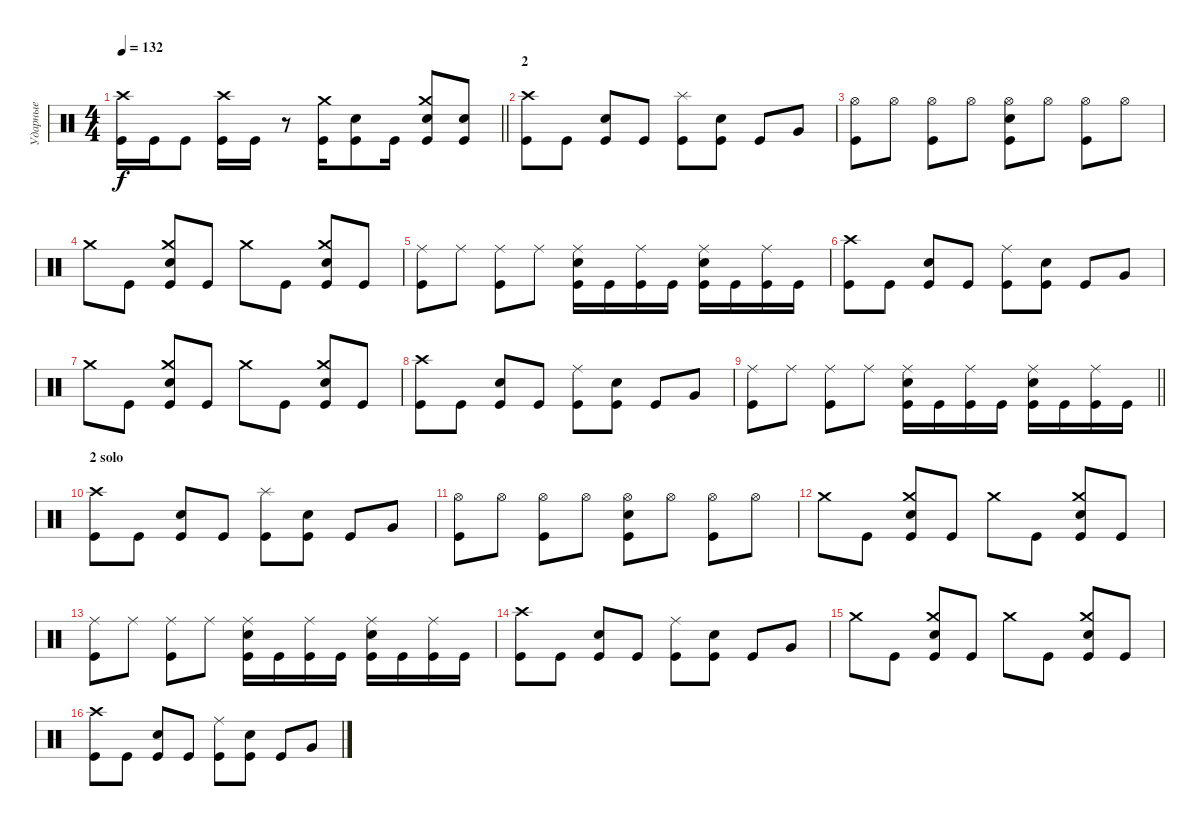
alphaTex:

\track ("Ударные" "Ударные") {instrument percussion}
\staff {score}
\articulation defaults
\ts (4 4)
\tempo 132
\clef neutral
\barLineRight lightlight
\ks c
("Crash high (hit)" "Kick (hit)").16{dy f} "Kick (hit)".16 "Kick (hit)".8 ("Crash high (hit)" "Kick (hit)").16 "Kick (hit)".16 r.8 ("Crash medium (hit)" "Kick (hit)").16 ("Electric Snare (hit)" "Kick (hit)").8 "Kick (hit)".16 ("Crash medium (hit)" "Electric Snare (hit)" "Kick (hit)").8 ("Electric Snare (hit)" "Kick (hit)").8 |
\section ("" "2")
("Crash high (hit)" "Kick (hit)").8 "Kick (hit)".8 ("Electric Snare (hit)" "Kick (hit)").8 "Kick (hit)".8 ("Splash (hit)" "Kick (hit)").8 ("Electric Snare (hit)" "Kick (hit)").8 "Kick (hit)".8 "Very Low Tom (hit)".8 |
("Hi-Hat (open)" "Kick (hit)").8 "Hi-Hat (open)".8 ("Hi-Hat (open)" "Kick (hit)").8 "Hi-Hat (open)".8 ("Hi-Hat (open)" "Electric Snare (hit)" "Kick (hit)").8 "Hi-Hat (open)".8 ("Hi-Hat (open)" "Kick (hit)").8 "Hi-Hat (open)".8 |
"Crash medium (hit)".8 "Kick (hit)".8 ("Crash medium (hit)" "Electric Snare (hit)" "Kick (hit)").8 "Kick (hit)".8 "Crash medium (hit)".8 "Kick (hit)".8 ("Crash medium (hit)" "Electric Snare (hit)" "Kick (hit)").8 "Kick (hit)".8 |
("Ride (middle)" "Kick (hit)").8 "Ride (middle)".8 ("Ride (middle)" "Kick (hit)").8 "Ride (middle)".8 ("Ride (middle)" "Electric Snare (hit)" "Kick (hit)").16 "Kick (hit)".16 ("Ride (middle)" "Kick (hit)").16 "Kick (hit)".16 ("Ride (middle)" "Electric Snare (hit)" "Kick (hit)").16 "Kick (hit)".16 ("Ride (middle)" "Kick (hit)").16 "Kick (hit)".16 |
("Crash high (hit)" "Kick (hit)").8 "Kick (hit)".8 ("Electric Snare (hit)" "Kick (hit)").8 "Kick (hit)".8 ("Ride (middle)" "Kick (hit)").8 ("Electric Snare (hit)" "Kick (hit)").8 "Kick (hit)".8 "Very Low Tom (hit)".8 |
"Crash medium (hit)".8 "Kick (hit)".8 ("Crash medium (hit)" "Electric Snare (hit)" "Kick (hit)").8 "Kick (hit)".8 "Crash medium (hit)".8 "Kick (hit)".8 ("Crash medium (hit)" "Electric Snare (hit)" "Kick (hit)").8 "Kick (hit)".8 |
("Crash high (hit)" "Kick (hit)").8 "Kick (hit)".8 ("Electric Snare (hit)" "Kick (hit)").8 "Kick (hit)".8 ("Ride (middle)" "Kick (hit)").8 ("Electric Snare (hit)" "Kick (hit)").8 "Kick (hit)".8 "Very Low Tom (hit)".8 |
\barLineRight lightlight
("Ride (middle)" "Kick (hit)").8 "Ride (middle)".8 ("Ride (middle)" "Kick (hit)").8 "Ride (middle)".8 ("Ride (middle)" "Electric Snare (hit)" "Kick (hit)").16 "Kick (hit)".16 ("Ride (middle)" "Kick (hit)").16 "Kick (hit)".16 ("Ride (middle)" "Electric Snare (hit)" "Kick (hit)").16 "Kick (hit)".16 ("Ride (middle)" "Kick (hit)").16 "Kick (hit)".16 |
\section ("" "2 solo")
("Crash high (hit)" "Kick (hit)").8 "Kick (hit)".8 ("Electric Snare (hit)" "Kick (hit)").8 "Kick (hit)".8 ("Splash (hit)" "Kick (hit)").8 ("Electric Snare (hit)" "Kick (hit)").8 "Kick (hit)".8 "Very Low Tom (hit)".8 |
("Hi-Hat (open)" "Kick (hit)").8 "Hi-Hat (open)".8 ("Hi-Hat (open)" "Kick (hit)").8 "Hi-Hat (open)".8 ("Hi-Hat (open)" "Electric Snare (hit)" "Kick (hit)").8 "Hi-Hat (open)".8 ("Hi-Hat (open)" "Kick (hit)").8 "Hi-Hat (open)".8 |
"Crash medium (hit)".8 "Kick (hit)".8 ("Crash medium (hit)" "Electric Snare (hit)" "Kick (hit)").8 "Kick (hit)".8 "Crash medium (hit)".8 "Kick (hit)".8 ("Crash medium (hit)" "Electric Snare (hit)" "Kick (hit)").8 "Kick (hit)".8 |
("Ride (middle)" "Kick (hit)").8 "Ride (middle)".8 ("Ride (middle)" "Kick (hit)").8 "Ride (middle)".8 ("Ride (middle)" "Electric Snare (hit)" "Kick (hit)").16 "Kick (hit)".16 ("Ride (middle)" "Kick (hit)").16 "Kick (hit)".16 ("Ride (middle)" "Electric Snare (hit)" "Kick (hit)").16 "Kick (hit)".16 ("Ride (middle)" "Kick (hit)").16 "Kick (hit)".16 |
("Crash high (hit)" "Kick (hit)").8 "Kick (hit)".8 ("Electric Snare (hit)" "Kick (hit)").8 "Kick (hit)".8 ("Ride (middle)" "Kick (hit)").8 ("Electric Snare (hit)" "Kick (hit)").8 "Kick (hit)".8 "Very Low Tom (hit)".8 |
"Crash medium (hit)".8 "Kick (hit)".8 ("Crash medium (hit)" "Electric Snare (hit)" "Kick (hit)").8 "Kick (hit)".8 "Crash medium (hit)".8 "Kick (hit)".8 ("Crash medium (hit)" "Electric Snare (hit)" "Kick (hit)").8 "Kick (hit)".8 |
("Crash high (hit)" "Kick (hit)").8 "Kick (hit)".8 ("Electric Snare (hit)" "Kick (hit)").8 "Kick (hit)".8 ("Ride (middle)" "Kick (hit)").8 ("Electric Snare (hit)" "Kick (hit)").8 "Kick (hit)".8 "Very Low Tom (hit)".8
